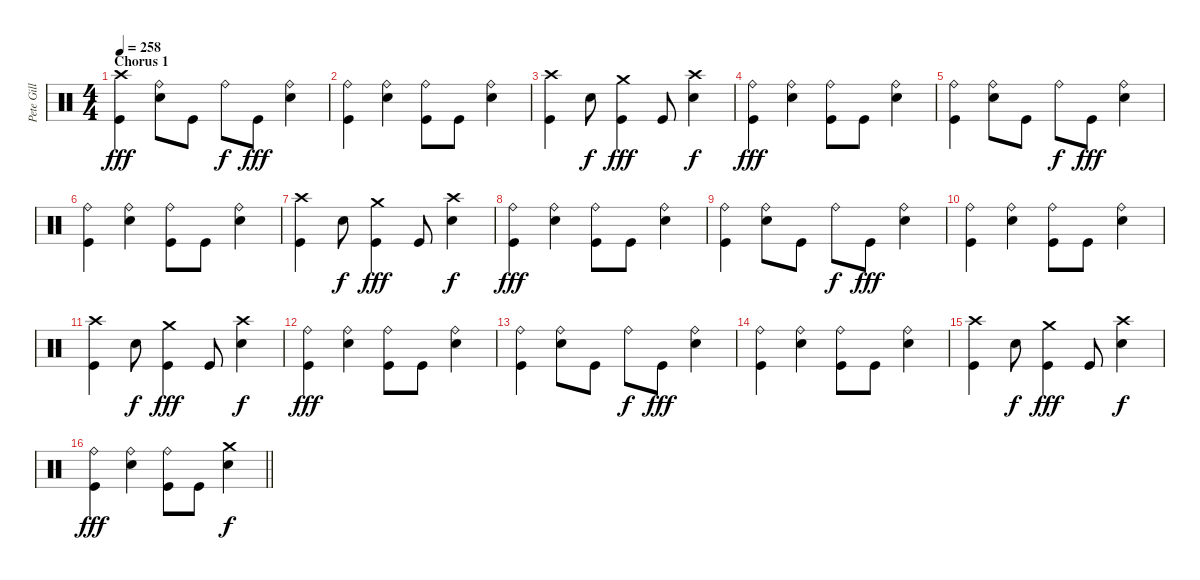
\track ("Pete Gill" "Pete Gill") {instrument percussion}
\staff {score}
\articulation defaults
\ts (4 4)
\section ("" "Chorus 1")
\tempo 258
\clef neutral
\ks c
("Crash high (hit)" "Kick (hit)").4{dy fff} ("Ride (bell)" "Electric Snare (hit)").8 "Kick (hit)".8 "Ride (bell)".8{dy f} "Kick (hit)".8{dy fff} ("Ride (bell)" "Electric Snare (hit)").4 |
("Ride (bell)" "Kick (hit)").4 ("Ride (bell)" "Electric Snare (hit)").4 ("Ride (bell)" "Kick (hit)").8 "Kick (hit)".8 ("Ride (bell)" "Electric Snare (hit)").4 |
("Crash high (hit)" "Kick (hit)").4 "Electric Snare (hit)".8{dy f} ("Crash medium (hit)" "Kick (hit)").4{dy fff} "Kick (hit)".8 ("Crash high (hit)" "Electric Snare (hit)").4{dy f} |
("Ride (bell)" "Kick (hit)").4{dy fff} ("Ride (bell)" "Electric Snare (hit)").4 ("Ride (bell)" "Kick (hit)").8 "Kick (hit)".8 ("Ride (bell)" "Electric Snare (hit)").4 |
("Ride (bell)" "Kick (hit)").4 ("Ride (bell)" "Electric Snare (hit)").8 "Kick (hit)".8 "Ride (bell)".8{dy f} "Kick (hit)".8{dy fff} ("Ride (bell)" "Electric Snare (hit)").4 |
("Ride (bell)" "Kick (hit)").4 ("Ride (bell)" "Electric Snare (hit)").4 ("Ride (bell)" "Kick (hit)").8 "Kick (hit)".8 ("Ride (bell)" "Electric Snare (hit)").4 |
("Crash high (hit)" "Kick (hit)").4 "Electric Snare (hit)".8{dy f} ("Crash medium (hit)" "Kick (hit)").4{dy fff} "Kick (hit)".8 ("Crash high (hit)" "Electric Snare (hit)").4{dy f} |
("Ride (bell)" "Kick (hit)").4{dy fff} ("Ride (bell)" "Electric Snare (hit)").4 ("Ride (bell)" "Kick (hit)").8 "Kick (hit)".8 ("Ride (bell)" "Electric Snare (hit)").4 |
("Ride (bell)" "Kick (hit)").4 ("Ride (bell)" "Electric Snare (hit)").8 "Kick (hit)".8 "Ride (bell)".8{dy f} "Kick (hit)".8{dy fff} ("Ride (bell)" "Electric Snare (hit)").4 |
("Ride (bell)" "Kick (hit)").4 ("Ride (bell)" "Electric Snare (hit)").4 ("Ride (bell)" "Kick (hit)").8 "Kick (hit)".8 ("Ride (bell)" "Electric Snare (hit)").4 |
("Crash high (hit)" "Kick (hit)").4 "Electric Snare (hit)".8{dy f} ("Crash medium (hit)" "Kick (hit)").4{dy fff} "Kick (hit)".8 ("Crash high (hit)" "Electric Snare (hit)").4{dy f} |
("Ride (bell)" "Kick (hit)").4{dy fff} ("Ride (bell)" "Electric Snare (hit)").4 ("Ride (bell)" "Kick (hit)").8 "Kick (hit)".8 ("Ride (bell)" "Electric Snare (hit)").4 |
("Ride (bell)" "Kick (hit)").4 ("Ride (bell)" "Electric Snare (hit)").8 "Kick (hit)".8 "Ride (bell)".8{dy f} "Kick (hit)".8{dy fff} ("Ride (bell)" "Electric Snare (hit)").4 |
("Ride (bell)" "Kick (hit)").4 ("Ride (bell)" "Electric Snare (hit)").4 ("Ride (bell)" "Kick (hit)").8 "Kick (hit)".8 ("Ride (bell)" "Electric Snare (hit)").4 |
("Crash high (hit)" "Kick (hit)").4 "Electric Snare (hit)".8{dy f} ("Crash medium (hit)" "Kick (hit)").4{dy fff} "Kick (hit)".8 ("Crash high (hit)" "Electric Snare (hit)").4{dy f} |
\barLineRight lightlight
("Ride (bell)" "Kick (hit)").4{dy fff} ("Ride (bell)" "Electric Snare (hit)").4 ("Ride (bell)" "Kick (hit)").8 "Kick (hit)".8 ("Crash medium (hit)" "Electric Snare (hit)").4{dy f}
